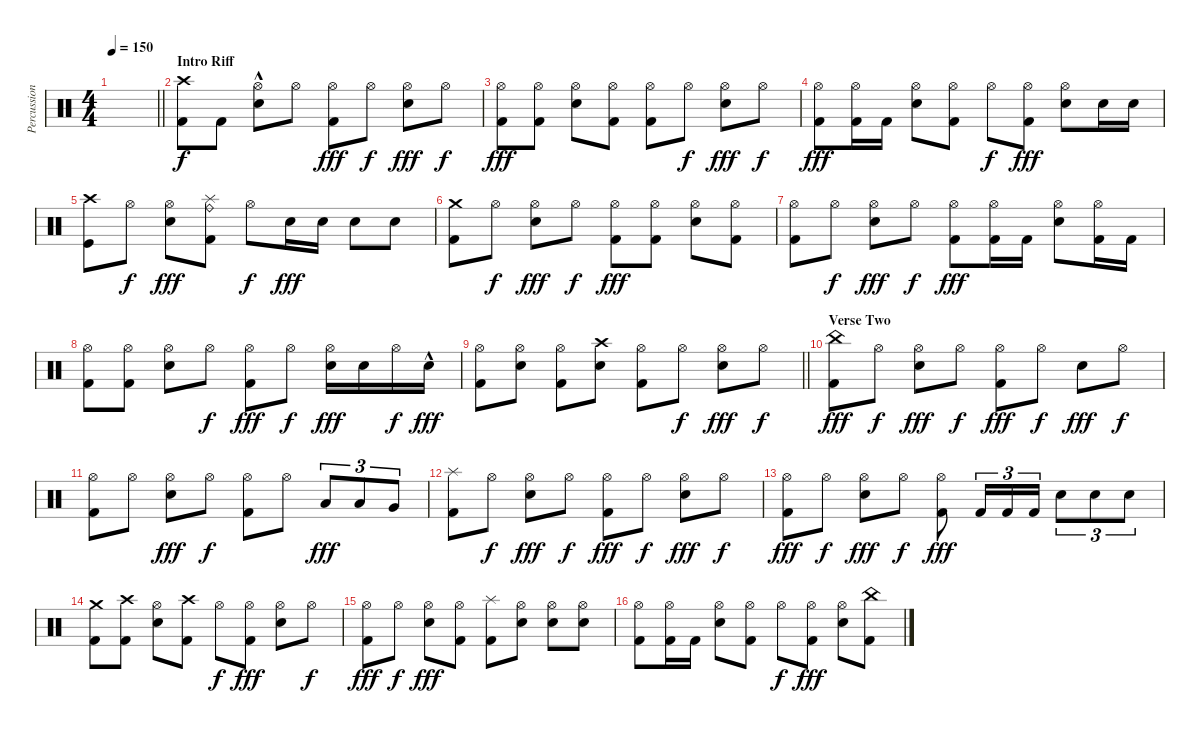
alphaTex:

\track ("Percussion" "Percussion") {instrument percussion}
\staff {score}
\articulation defaults
\ts (4 4)
\tempo 150
\clef neutral
\barLineRight lightlight
\ks c
|
\section ("" "Intro Riff")
("Kick (hit) 2" "Crash high (hit)").8 "Kick (hit) 2".8 ("Snare (hit) 2"{hac} "Hi-Hat (open)").8 "Hi-Hat (open)".8{dy f} ("Kick (hit) 2" "Hi-Hat (open)").8{dy fff} "Hi-Hat (open)".8{dy f} ("Snare (hit) 2" "Hi-Hat (open)").8{dy fff} "Hi-Hat (open)".8{dy f} |
("Kick (hit) 2" "Hi-Hat (open)").8{dy fff} ("Hi-Hat (open)" "Kick (hit) 2").8 ("Hi-Hat (open)" "Snare (hit) 2").8 ("Hi-Hat (open)" "Kick (hit) 2").8 ("Hi-Hat (open)" "Kick (hit) 2").8 "Hi-Hat (open)".8{dy f} ("Snare (hit) 2" "Hi-Hat (open)").8{dy fff} "Hi-Hat (open)".8{dy f} |
("Kick (hit) 2" "Hi-Hat (open)").8{dy fff} ("Kick (hit) 2" "Hi-Hat (open)").16 "Kick (hit) 2".16 ("Hi-Hat (open)" "Snare (hit) 2").8 ("Hi-Hat (open)" "Kick (hit) 2").8 "Hi-Hat (open)".8{dy f} ("Kick (hit) 2" "Hi-Hat (open)").8{dy fff} ("Hi-Hat (open)" "Snare (hit) 2").8 "Snare (hit) 2".16 "Snare (hit) 2".16 |
("Kick (hit)" "Crash high (hit)").8 "Hi-Hat (open)".8{dy f} ("Snare (hit) 2" "Hi-Hat (open)").8{dy fff} ("Splash (hit)" "Kick (hit) 2" "Ride (bell)").8 "Hi-Hat (open)".8{dy f} "Snare (hit) 2".16{dy fff} "Snare (hit) 2".16 "Snare (hit) 2".8 "Snare (hit) 2".8 |
("Kick (hit) 2" "Crash medium (hit)").8 "Hi-Hat (open)".8{dy f} ("Snare (hit) 2" "Hi-Hat (open)").8{dy fff} "Hi-Hat (open)".8{dy f} ("Kick (hit) 2" "Hi-Hat (open)").8{dy fff} ("Hi-Hat (open)" "Kick (hit) 2").8 ("Hi-Hat (open)" "Snare (hit) 2").8 ("Hi-Hat (open)" "Kick (hit) 2").8 |
("Kick (hit) 2" "Hi-Hat (open)").8 "Hi-Hat (open)".8{dy f} ("Snare (hit) 2" "Hi-Hat (open)").8{dy fff} "Hi-Hat (open)".8{dy f} ("Hi-Hat (open)" "Kick (hit) 2").8{dy fff} ("Hi-Hat (open)" "Kick (hit) 2").16 "Kick (hit) 2".16 ("Hi-Hat (open)" "Snare (hit) 2").8 ("Hi-Hat (open)" "Kick (hit) 2").16 "Kick (hit) 2".16 |
("Hi-Hat (open)" "Kick (hit) 2").8 ("Kick (hit) 2" "Hi-Hat (open)").8 ("Hi-Hat (open)" "Snare (hit) 2").8 "Hi-Hat (open)".8{dy f} ("Kick (hit) 2" "Hi-Hat (open)").8{dy fff} "Hi-Hat (open)".8{dy f} ("Snare (hit) 2" "Hi-Hat (open)").16{dy fff} "Snare (hit) 2".16 "Hi-Hat (open)".16{dy f} "Snare (hit) 2"{hac}.16{dy fff} |
\barLineRight lightlight
("Kick (hit) 2" "Hi-Hat (open)").8 ("Hi-Hat (open)" "Snare (hit) 2").8 ("Hi-Hat (open)" "Kick (hit) 2").8 ("Crash high (hit)" "Snare (hit) 2").8 ("Kick (hit) 2" "Hi-Hat (open)").8 "Hi-Hat (open)".8{dy f} ("Snare (hit) 2" "Hi-Hat (open)").8{dy fff} "Hi-Hat (open)".8{dy f} |
\section ("" "Verse Two")
("Kick (hit) 2" "China (hit)").8{dy fff} "Hi-Hat (open)".8{dy f} ("Hi-Hat (open)" "Snare (hit) 2").8{dy fff} "Hi-Hat (open)".8{dy f} ("Hi-Hat (open)" "Kick (hit) 2").8{dy fff} "Hi-Hat (open)".8{dy f} "Snare (hit) 2".8{dy fff} "Hi-Hat (open)".8{dy f} |
("Hi-Hat (open)" "Kick (hit) 2").8 "Hi-Hat (open)".8 ("Snare (hit) 2" "Hi-Hat (open)").8{dy fff} "Hi-Hat (open)".8{dy f} ("Hi-Hat (open)" "Kick (hit) 2").8 "Hi-Hat (open)".8 "Low Tom (hit)".8{tu (3 2) dy fff} "Low Tom (hit)".8{tu (3 2)} "Very Low Tom (hit)".8{tu (3 2)} |
("Kick (hit) 2" "Splash (hit)").8 "Hi-Hat (open)".8{dy f} ("Hi-Hat (open)" "Snare (hit) 2").8{dy fff} "Hi-Hat (open)".8{dy f} ("Hi-Hat (open)" "Kick (hit) 2").8{dy fff} "Hi-Hat (open)".8{dy f} ("Hi-Hat (open)" "Snare (hit) 2").8{dy fff} "Hi-Hat (open)".8{dy f} |
("Hi-Hat (open)" "Kick (hit) 2").8{dy fff} "Hi-Hat (open)".8{dy f} ("Snare (hit) 2" "Hi-Hat (open)").8{dy fff} "Hi-Hat (open)".8{dy f} ("Hi-Hat (open)" "Kick (hit) 2").8{dy fff} "Kick (hit) 2".16{tu (3 2)} "Kick (hit) 2".16{tu (3 2)} "Kick (hit) 2".16{tu (3 2)} "Snare (hit) 2".8{tu (3 2)} "Snare (hit) 2".8{tu (3 2)} "Snare (hit) 2".8{tu (3 2)} |
("Kick (hit) 2" "Crash medium (hit)").8 ("Kick (hit) 2" "Crash high (hit)").8 ("Hi-Hat (open)" "Snare (hit) 2").8 ("Crash high (hit)" "Kick (hit) 2").8 "Hi-Hat (open)".8{dy f} ("Hi-Hat (open)" "Kick (hit) 2").8{dy fff} ("Hi-Hat (open)" "Snare (hit) 2").8 "Hi-Hat (open)".8{dy f} |
("Hi-Hat (open)" "Kick (hit) 2").8{dy fff} "Hi-Hat (open)".8{dy f} ("Snare (hit) 2" "Hi-Hat (open)").8{dy fff} ("Hi-Hat (open)" "Kick (hit) 2").8 ("Splash (hit)" "Kick (hit) 2").8 ("Hi-Hat (open)" "Snare (hit) 2").8 ("Hi-Hat (open)" "Snare (hit) 2").8 ("Hi-Hat (open)" "Snare (hit) 2").8 |
("Hi-Hat (open)" "Kick (hit) 2").8 ("Hi-Hat (open)" "Kick (hit) 2").16 "Kick (hit) 2".16 ("Hi-Hat (open)" "Snare (hit) 2").8 ("Hi-Hat (open)" "Kick (hit) 2").8 "Hi-Hat (open)".8{dy f} ("Hi-Hat (open)" "Kick (hit) 2").8{dy fff} ("Hi-Hat (open)" "Snare (hit) 2").8 ("China (hit)" "Kick (hit) 2").8
